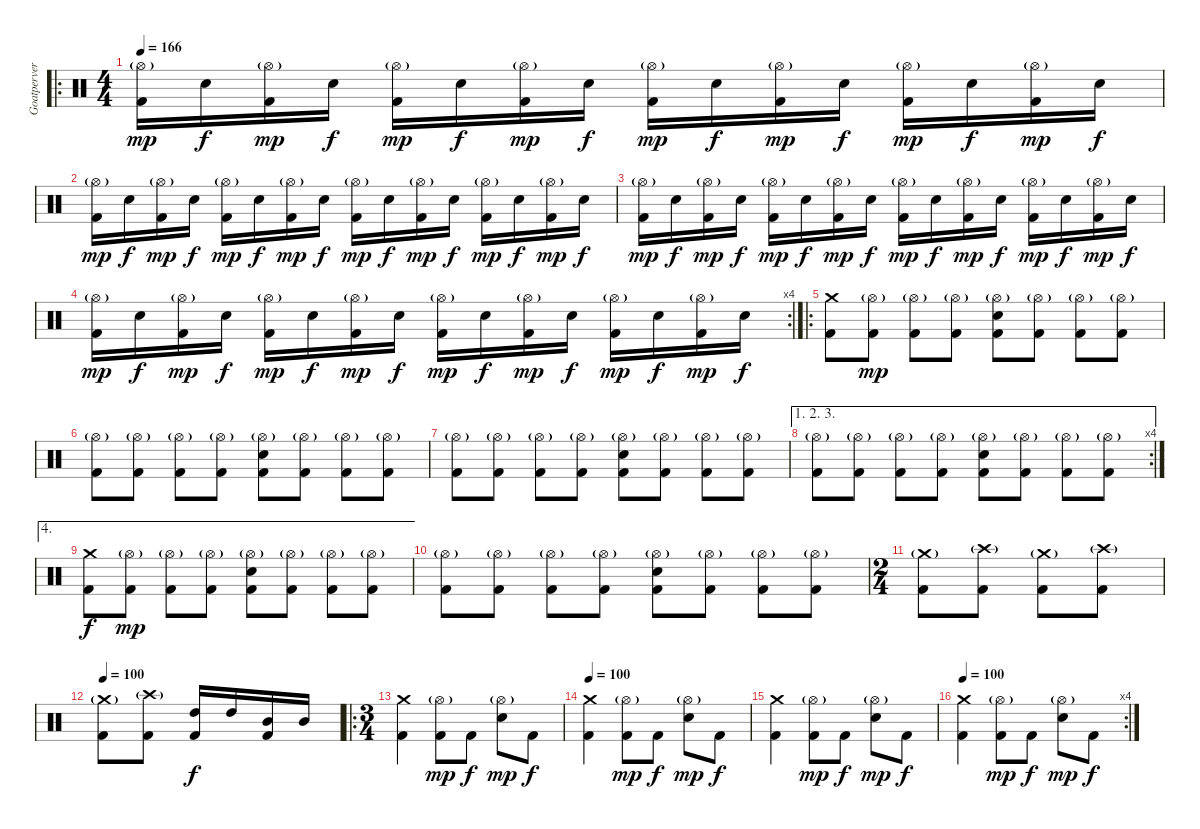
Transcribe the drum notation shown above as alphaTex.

\track ("Goatpervertor " "Goatperver") {instrument percussion}
\staff {score}
\articulation defaults
\ro
\ts (4 4)
\tempo 166
\clef neutral
\ks c
("Hi-Hat (open)"{g} "Kick (hit) 2").16{dy mp} "Electric Snare (hit)".16{dy f} ("Hi-Hat (open)"{g} "Kick (hit) 2").16{dy mp} "Electric Snare (hit)".16{dy f} ("Hi-Hat (open)"{g} "Kick (hit) 2").16{dy mp} "Electric Snare (hit)".16{dy f} ("Hi-Hat (open)"{g} "Kick (hit) 2").16{dy mp} "Electric Snare (hit)".16{dy f} ("Hi-Hat (open)"{g} "Kick (hit) 2").16{dy mp} "Electric Snare (hit)".16{dy f} ("Hi-Hat (open)"{g} "Kick (hit) 2").16{dy mp} "Electric Snare (hit)".16{dy f} ("Hi-Hat (open)"{g} "Kick (hit) 2").16{dy mp} "Electric Snare (hit)".16{dy f} ("Hi-Hat (open)"{g} "Kick (hit) 2").16{dy mp} "Electric Snare (hit)".16{dy f} |
("Hi-Hat (open)"{g} "Kick (hit) 2").16{dy mp} "Electric Snare (hit)".16{dy f} ("Hi-Hat (open)"{g} "Kick (hit) 2").16{dy mp} "Electric Snare (hit)".16{dy f} ("Hi-Hat (open)"{g} "Kick (hit) 2").16{dy mp} "Electric Snare (hit)".16{dy f} ("Hi-Hat (open)"{g} "Kick (hit) 2").16{dy mp} "Electric Snare (hit)".16{dy f} ("Hi-Hat (open)"{g} "Kick (hit) 2").16{dy mp} "Electric Snare (hit)".16{dy f} ("Hi-Hat (open)"{g} "Kick (hit) 2").16{dy mp} "Electric Snare (hit)".16{dy f} ("Hi-Hat (open)"{g} "Kick (hit) 2").16{dy mp} "Electric Snare (hit)".16{dy f} ("Hi-Hat (open)"{g} "Kick (hit) 2").16{dy mp} "Electric Snare (hit)".16{dy f} |
("Hi-Hat (open)"{g} "Kick (hit) 2").16{dy mp} "Electric Snare (hit)".16{dy f} ("Hi-Hat (open)"{g} "Kick (hit) 2").16{dy mp} "Electric Snare (hit)".16{dy f} ("Hi-Hat (open)"{g} "Kick (hit) 2").16{dy mp} "Electric Snare (hit)".16{dy f} ("Hi-Hat (open)"{g} "Kick (hit) 2").16{dy mp} "Electric Snare (hit)".16{dy f} ("Hi-Hat (open)"{g} "Kick (hit) 2").16{dy mp} "Electric Snare (hit)".16{dy f} ("Hi-Hat (open)"{g} "Kick (hit) 2").16{dy mp} "Electric Snare (hit)".16{dy f} ("Hi-Hat (open)"{g} "Kick (hit) 2").16{dy mp} "Electric Snare (hit)".16{dy f} ("Hi-Hat (open)"{g} "Kick (hit) 2").16{dy mp} "Electric Snare (hit)".16{dy f} |
\rc 4
("Hi-Hat (open)"{g} "Kick (hit) 2").16{dy mp} "Electric Snare (hit)".16{dy f} ("Hi-Hat (open)"{g} "Kick (hit) 2").16{dy mp} "Electric Snare (hit)".16{dy f} ("Hi-Hat (open)"{g} "Kick (hit) 2").16{dy mp} "Electric Snare (hit)".16{dy f} ("Hi-Hat (open)"{g} "Kick (hit) 2").16{dy mp} "Electric Snare (hit)".16{dy f} ("Hi-Hat (open)"{g} "Kick (hit) 2").16{dy mp} "Electric Snare (hit)".16{dy f} ("Hi-Hat (open)"{g} "Kick (hit) 2").16{dy mp} "Electric Snare (hit)".16{dy f} ("Hi-Hat (open)"{g} "Kick (hit) 2").16{dy mp} "Electric Snare (hit)".16{dy f} ("Hi-Hat (open)"{g} "Kick (hit) 2").16{dy mp} "Electric Snare (hit)".16{dy f} |
\ro
("Crash medium (hit)" "Kick (hit) 2").8 ("Hi-Hat (open)"{g} "Kick (hit) 2").8{dy mp} ("Hi-Hat (open)"{g} "Kick (hit) 2").8 ("Hi-Hat (open)"{g} "Kick (hit) 2").8 ("Hi-Hat (open)"{g} "Electric Snare (hit)" "Kick (hit) 2").8 ("Hi-Hat (open)"{g} "Kick (hit) 2").8 ("Hi-Hat (open)"{g} "Kick (hit) 2").8 ("Hi-Hat (open)"{g} "Kick (hit) 2").8 |
("Hi-Hat (open)"{g} "Kick (hit) 2").8 ("Hi-Hat (open)"{g} "Kick (hit) 2").8 ("Hi-Hat (open)"{g} "Kick (hit) 2").8 ("Hi-Hat (open)"{g} "Kick (hit) 2").8 ("Hi-Hat (open)"{g} "Electric Snare (hit)" "Kick (hit) 2").8 ("Hi-Hat (open)"{g} "Kick (hit) 2").8 ("Hi-Hat (open)"{g} "Kick (hit) 2").8 ("Hi-Hat (open)"{g} "Kick (hit) 2").8 |
("Hi-Hat (open)"{g} "Kick (hit) 2").8 ("Hi-Hat (open)"{g} "Kick (hit) 2").8 ("Hi-Hat (open)"{g} "Kick (hit) 2").8 ("Hi-Hat (open)"{g} "Kick (hit) 2").8 ("Hi-Hat (open)"{g} "Electric Snare (hit)" "Kick (hit) 2").8 ("Hi-Hat (open)"{g} "Kick (hit) 2").8 ("Hi-Hat (open)"{g} "Kick (hit) 2").8 ("Hi-Hat (open)"{g} "Kick (hit) 2").8 |
\ae (1 2 3)
\rc 4
("Hi-Hat (open)"{g} "Kick (hit) 2").8 ("Hi-Hat (open)"{g} "Kick (hit) 2").8 ("Hi-Hat (open)"{g} "Kick (hit) 2").8 ("Hi-Hat (open)"{g} "Kick (hit) 2").8 ("Hi-Hat (open)"{g} "Electric Snare (hit)" "Kick (hit) 2").8 ("Hi-Hat (open)"{g} "Kick (hit) 2").8 ("Hi-Hat (open)"{g} "Kick (hit) 2").8 ("Hi-Hat (open)"{g} "Kick (hit) 2").8 |
\ae 4
("Crash medium (hit)" "Kick (hit) 2").8{dy f} ("Hi-Hat (open)"{g} "Kick (hit) 2").8{dy mp} ("Hi-Hat (open)"{g} "Kick (hit) 2").8 ("Hi-Hat (open)"{g} "Kick (hit) 2").8 ("Hi-Hat (open)"{g} "Electric Snare (hit)" "Kick (hit) 2").8 ("Hi-Hat (open)"{g} "Kick (hit) 2").8 ("Hi-Hat (open)"{g} "Kick (hit) 2").8 ("Hi-Hat (open)"{g} "Kick (hit) 2").8 |
("Hi-Hat (open)"{g} "Kick (hit) 2").8 ("Hi-Hat (open)"{g} "Kick (hit) 2").8 ("Hi-Hat (open)"{g} "Kick (hit) 2").8 ("Hi-Hat (open)"{g} "Kick (hit) 2").8 ("Hi-Hat (open)"{g} "Electric Snare (hit)" "Kick (hit) 2").8 ("Hi-Hat (open)"{g} "Kick (hit) 2").8 ("Hi-Hat (open)"{g} "Kick (hit) 2").8 ("Hi-Hat (open)"{g} "Kick (hit) 2").8 |
\ts (2 4)
("Crash medium (hit)"{g} "Kick (hit) 2").8 ("Crash high (hit)"{g} "Kick (hit) 2").8 ("Crash medium (hit)"{g} "Kick (hit) 2").8 ("Crash high (hit)"{g} "Kick (hit) 2").8 |
\tempo 100
("Crash medium (hit)"{g} "Kick (hit) 2").8 ("Crash high (hit)"{g} "Kick (hit) 2").8 ("High Tom (hit)" "Kick (hit) 2").16{dy f} "High Tom (hit)".16 ("Mid Tom (hit)" "Kick (hit) 2").16 "Mid Tom (hit)".16 |
\ro
\ts (3 4)
("Crash medium (hit)" "Kick (hit) 2").4 ("Hi-Hat (open)"{g} "Kick (hit) 2").8{dy mp} "Kick (hit) 2".8{dy f} ("Hi-Hat (open)"{g} "Electric Snare (hit)").8{dy mp} "Kick (hit) 2".8{dy f} |
\tempo 100
("Crash medium (hit)" "Kick (hit) 2").4 ("Hi-Hat (open)"{g} "Kick (hit) 2").8{dy mp} "Kick (hit) 2".8{dy f} ("Hi-Hat (open)"{g} "Electric Snare (hit)").8{dy mp} "Kick (hit) 2".8{dy f} |
("Crash medium (hit)" "Kick (hit) 2").4 ("Hi-Hat (open)"{g} "Kick (hit) 2").8{dy mp} "Kick (hit) 2".8{dy f} ("Hi-Hat (open)"{g} "Electric Snare (hit)").8{dy mp} "Kick (hit) 2".8{dy f} |
\rc 4
\tempo 100
("Crash medium (hit)" "Kick (hit) 2").4 ("Hi-Hat (open)"{g} "Kick (hit) 2").8{dy mp} "Kick (hit) 2".8{dy f} ("Hi-Hat (open)"{g} "Electric Snare (hit)").8{dy mp} "Kick (hit) 2".8{dy f}
